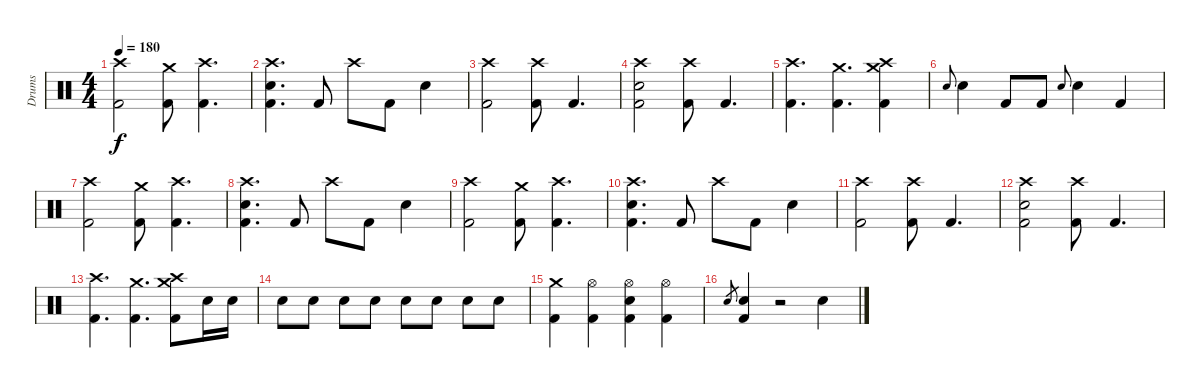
\track ("Drums" "Drums") {instrument percussion}
\staff {score}
\articulation defaults
\ts (4 4)
\tempo 180
\clef neutral
\ks c
("Crash high (hit)" "Kick (hit) 2").2{dy f} ("Crash medium (hit)" "Kick (hit) 2").8 ("Crash high (hit)" "Kick (hit) 2").4{d} |
("Crash high (hit)" "Electric Snare (hit)" "Kick (hit) 2").4{d} "Kick (hit) 2".8 "Crash high (hit)".8 "Kick (hit) 2".8 "Electric Snare (hit)".4 |
("Crash high (hit)" "Kick (hit) 2").2 ("Crash high (hit)" "Kick (hit) 2").8 "Kick (hit) 2".4{d} |
("Crash high (hit)" "Electric Snare (hit)" "Kick (hit) 2").2 ("Crash high (hit)" "Kick (hit) 2").8 "Kick (hit) 2".4{d} |
("Crash high (hit)" "Kick (hit) 2").4{d} ("Crash medium (hit)" "Kick (hit) 2").4{d} ("Crash high (hit)" "Crash medium (hit)" "Kick (hit) 2").4 |
"Electric Snare (hit)".8{gr onbeat} "Electric Snare (hit)".4 "Kick (hit) 2".8 "Kick (hit) 2".8 "Electric Snare (hit)".8{gr onbeat} "Electric Snare (hit)".4 "Kick (hit) 2".4 |
("Crash high (hit)" "Kick (hit) 2").2 ("Crash medium (hit)" "Kick (hit) 2").8 ("Crash high (hit)" "Kick (hit) 2").4{d} |
("Crash high (hit)" "Electric Snare (hit)" "Kick (hit) 2").4{d} "Kick (hit) 2".8 "Crash high (hit)".8 "Kick (hit) 2".8 "Electric Snare (hit)".4 |
("Crash high (hit)" "Kick (hit) 2").2 ("Crash medium (hit)" "Kick (hit) 2").8 ("Crash high (hit)" "Kick (hit) 2").4{d} |
("Crash high (hit)" "Electric Snare (hit)" "Kick (hit) 2").4{d} "Kick (hit) 2".8 "Crash high (hit)".8 "Kick (hit) 2".8 "Electric Snare (hit)".4 |
("Crash high (hit)" "Kick (hit) 2").2 ("Crash high (hit)" "Kick (hit) 2").8 "Kick (hit) 2".4{d} |
("Crash high (hit)" "Electric Snare (hit)" "Kick (hit) 2").2 ("Crash high (hit)" "Kick (hit) 2").8 "Kick (hit) 2".4{d} |
("Crash high (hit)" "Kick (hit) 2").4{d} ("Crash medium (hit)" "Kick (hit) 2").4{d} ("Crash high (hit)" "Crash medium (hit)" "Kick (hit) 2").8 "Electric Snare (hit)".16 "Electric Snare (hit)".16 |
"Electric Snare (hit)".8 "Electric Snare (hit)".8 "Electric Snare (hit)".8 "Electric Snare (hit)".8 "Electric Snare (hit)".8 "Electric Snare (hit)".8 "Electric Snare (hit)".8 "Electric Snare (hit)".8 |
("Crash medium (hit)" "Kick (hit) 2").4 ("Hi-Hat (open)" "Kick (hit) 2").4 ("Hi-Hat (open)" "Electric Snare (hit)" "Kick (hit) 2").4 ("Hi-Hat (open)" "Kick (hit) 2").4 |
"Electric Snare (hit)".8{gr} ("Electric Snare (hit)" "Kick (hit) 2").4 r.2 "Electric Snare (hit)".4
